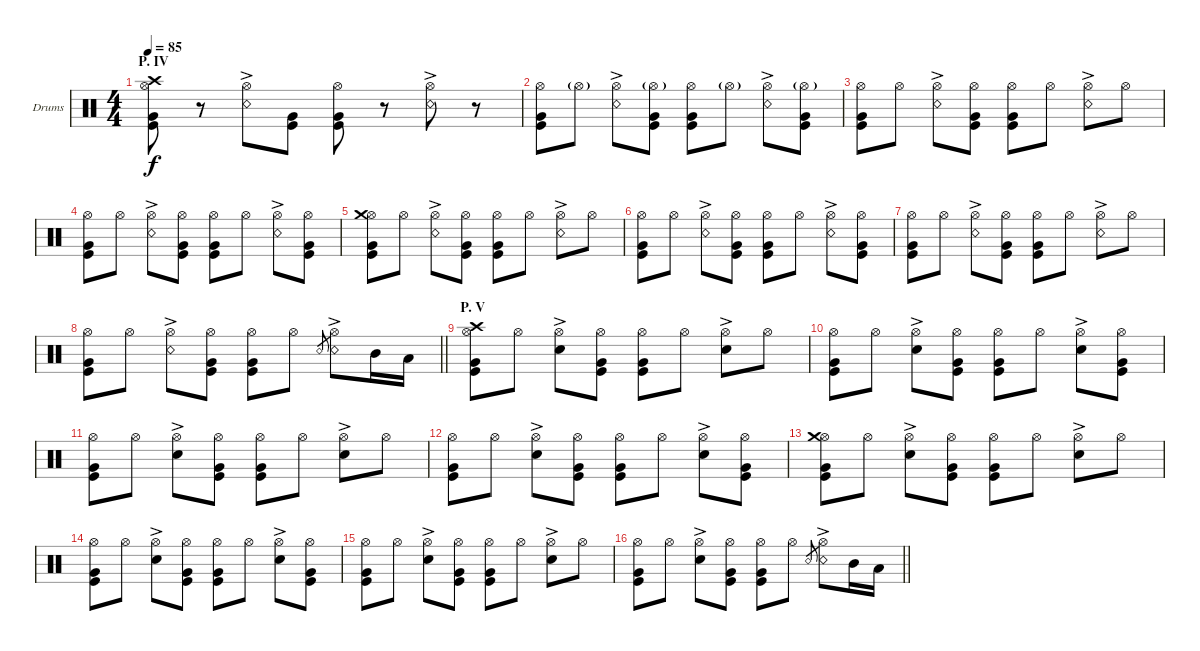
\bracketExtendMode groupsimilarinstruments
\firstSystemTrackNameOrientation horizontal
\otherSystemsTrackNameOrientation horizontal
\track ("Drumkit" "Drums") {instrument percussion}
\staff {score}
\articulation defaults
\ts (4 4)
\section ("" "P. IV")
\tempo 85
\clef neutral
\ks c
("Hi-Hat (open)" "Kick (hit)" "Crash high (hit)" "Very Low Tom (hit)").8{dy f} r.8 ("Hi-Hat (open)" "Snare (rim shot)"{ac}).8 ("Kick (hit)" "Very Low Tom (hit)").8 ("Hi-Hat (open)" "Kick (hit)" "Very Low Tom (hit)").8 r.8 ("Hi-Hat (open)" "Snare (rim shot)"{ac}).8 r.8 |
("Hi-Hat (open)" "Kick (hit)" "Very Low Tom (hit)").8 "Hi-Hat (open)"{g}.8 ("Hi-Hat (open)" "Snare (rim shot)"{ac}).8 ("Hi-Hat (open)"{g} "Kick (hit)" "Very Low Tom (hit)").8 ("Hi-Hat (open)" "Kick (hit)" "Very Low Tom (hit)").8 "Hi-Hat (open)"{g}.8 ("Hi-Hat (open)" "Snare (rim shot)"{ac}).8 ("Hi-Hat (open)"{g} "Kick (hit)" "Very Low Tom (hit)").8 |
("Hi-Hat (open)" "Kick (hit)" "Very Low Tom (hit)").8 "Hi-Hat (open)".8 ("Hi-Hat (open)" "Snare (rim shot)"{ac}).8 ("Hi-Hat (open)" "Kick (hit)" "Very Low Tom (hit)").8 ("Hi-Hat (open)" "Kick (hit)" "Very Low Tom (hit)").8 "Hi-Hat (open)".8 ("Hi-Hat (open)" "Snare (rim shot)"{ac}).8 "Hi-Hat (open)".8 |
("Hi-Hat (open)" "Kick (hit)" "Very Low Tom (hit)").8 "Hi-Hat (open)".8 ("Hi-Hat (open)" "Snare (rim shot)"{ac}).8 ("Hi-Hat (open)" "Kick (hit)" "Very Low Tom (hit)").8 ("Hi-Hat (open)" "Kick (hit)" "Very Low Tom (hit)").8 "Hi-Hat (open)".8 ("Hi-Hat (open)" "Snare (rim shot)"{ac}).8 ("Hi-Hat (open)" "Kick (hit)" "Very Low Tom (hit)").8 |
("Hi-Hat (open)" "Kick (hit)" "Crash medium (hit)" "Very Low Tom (hit)").8 "Hi-Hat (open)".8 ("Hi-Hat (open)" "Snare (rim shot)"{ac}).8 ("Hi-Hat (open)" "Kick (hit)" "Very Low Tom (hit)").8 ("Hi-Hat (open)" "Kick (hit)" "Very Low Tom (hit)").8 "Hi-Hat (open)".8 ("Hi-Hat (open)" "Snare (rim shot)"{ac}).8 "Hi-Hat (open)".8 |
("Hi-Hat (open)" "Kick (hit)" "Very Low Tom (hit)").8 "Hi-Hat (open)".8 ("Hi-Hat (open)" "Snare (rim shot)"{ac}).8 ("Hi-Hat (open)" "Kick (hit)" "Very Low Tom (hit)").8 ("Hi-Hat (open)" "Kick (hit)" "Very Low Tom (hit)").8 "Hi-Hat (open)".8 ("Hi-Hat (open)" "Snare (rim shot)"{ac}).8 ("Hi-Hat (open)" "Kick (hit)" "Very Low Tom (hit)").8 |
("Hi-Hat (open)" "Kick (hit)" "Very Low Tom (hit)").8 "Hi-Hat (open)".8 ("Hi-Hat (open)" "Snare (rim shot)"{ac}).8 ("Hi-Hat (open)" "Kick (hit)" "Very Low Tom (hit)").8 ("Hi-Hat (open)" "Kick (hit)" "Very Low Tom (hit)").8 "Hi-Hat (open)".8 ("Hi-Hat (open)" "Snare (rim shot)"{ac}).8 "Hi-Hat (open)".8 |
\barLineRight lightlight
("Hi-Hat (open)" "Kick (hit)" "Very Low Tom (hit)").8 "Hi-Hat (open)".8 ("Hi-Hat (open)" "Snare (rim shot)"{ac}).8 ("Hi-Hat (open)" "Kick (hit)" "Very Low Tom (hit)").8 ("Hi-Hat (open)" "Kick (hit)" "Very Low Tom (hit)").8 "Hi-Hat (open)".8 "Snare (rim shot)".8{gr} ("Hi-Hat (open)" "Snare (rim shot)"{ac}).8 "Mid Tom (hit)".16 "Low Tom (hit)".16 |
\section ("" "P. V")
("Hi-Hat (open)" "Kick (hit)" "Crash high (hit)" "Very Low Tom (hit)").8 "Hi-Hat (open)".8 ("Hi-Hat (open)" "Snare (hit) 2"{ac}).8 ("Hi-Hat (open)" "Kick (hit)" "Very Low Tom (hit)").8 ("Hi-Hat (open)" "Kick (hit)" "Very Low Tom (hit)").8 "Hi-Hat (open)".8 ("Hi-Hat (open)" "Snare (hit) 2"{ac}).8 "Hi-Hat (open)".8 |
("Hi-Hat (open)" "Kick (hit)" "Very Low Tom (hit)").8 "Hi-Hat (open)".8 ("Hi-Hat (open)" "Snare (hit) 2"{ac}).8 ("Hi-Hat (open)" "Kick (hit)" "Very Low Tom (hit)").8 ("Hi-Hat (open)" "Kick (hit)" "Very Low Tom (hit)").8 "Hi-Hat (open)".8 ("Hi-Hat (open)" "Snare (hit) 2"{ac}).8 ("Hi-Hat (open)" "Kick (hit)" "Very Low Tom (hit)").8 |
("Hi-Hat (open)" "Kick (hit)" "Very Low Tom (hit)").8 "Hi-Hat (open)".8 ("Hi-Hat (open)" "Snare (hit) 2"{ac}).8 ("Hi-Hat (open)" "Kick (hit)" "Very Low Tom (hit)").8 ("Hi-Hat (open)" "Kick (hit)" "Very Low Tom (hit)").8 "Hi-Hat (open)".8 ("Hi-Hat (open)" "Snare (hit) 2"{ac}).8 "Hi-Hat (open)".8 |
("Hi-Hat (open)" "Kick (hit)" "Very Low Tom (hit)").8 "Hi-Hat (open)".8 ("Hi-Hat (open)" "Snare (hit) 2"{ac}).8 ("Hi-Hat (open)" "Kick (hit)" "Very Low Tom (hit)").8 ("Hi-Hat (open)" "Kick (hit)" "Very Low Tom (hit)").8 "Hi-Hat (open)".8 ("Hi-Hat (open)" "Snare (hit) 2"{ac}).8 ("Hi-Hat (open)" "Kick (hit)" "Very Low Tom (hit)").8 |
("Hi-Hat (open)" "Kick (hit)" "Crash medium (hit)" "Very Low Tom (hit)").8 "Hi-Hat (open)".8 ("Hi-Hat (open)" "Snare (hit) 2"{ac}).8 ("Hi-Hat (open)" "Kick (hit)" "Very Low Tom (hit)").8 ("Hi-Hat (open)" "Kick (hit)" "Very Low Tom (hit)").8 "Hi-Hat (open)".8 ("Hi-Hat (open)" "Snare (hit) 2"{ac}).8 "Hi-Hat (open)".8 |
("Hi-Hat (open)" "Kick (hit)" "Very Low Tom (hit)").8 "Hi-Hat (open)".8 ("Hi-Hat (open)" "Snare (hit) 2"{ac}).8 ("Hi-Hat (open)" "Kick (hit)" "Very Low Tom (hit)").8 ("Hi-Hat (open)" "Kick (hit)" "Very Low Tom (hit)").8 "Hi-Hat (open)".8 ("Hi-Hat (open)" "Snare (hit) 2"{ac}).8 ("Hi-Hat (open)" "Kick (hit)" "Very Low Tom (hit)").8 |
("Hi-Hat (open)" "Kick (hit)" "Very Low Tom (hit)").8 "Hi-Hat (open)".8 ("Hi-Hat (open)" "Snare (hit) 2"{ac}).8 ("Hi-Hat (open)" "Kick (hit)" "Very Low Tom (hit)").8 ("Hi-Hat (open)" "Kick (hit)" "Very Low Tom (hit)").8 "Hi-Hat (open)".8 ("Hi-Hat (open)" "Snare (hit) 2"{ac}).8 "Hi-Hat (open)".8 |
\barLineRight lightlight
("Hi-Hat (open)" "Kick (hit)" "Very Low Tom (hit)").8 "Hi-Hat (open)".8 ("Hi-Hat (open)" "Snare (hit) 2"{ac}).8 ("Hi-Hat (open)" "Kick (hit)" "Very Low Tom (hit)").8 ("Hi-Hat (open)" "Kick (hit)" "Very Low Tom (hit)").8 "Hi-Hat (open)".8 "Snare (rim shot)".8{gr} ("Hi-Hat (open)" "Snare (rim shot)"{ac}).8 "Mid Tom (hit)".16 "Low Tom (hit)".16
